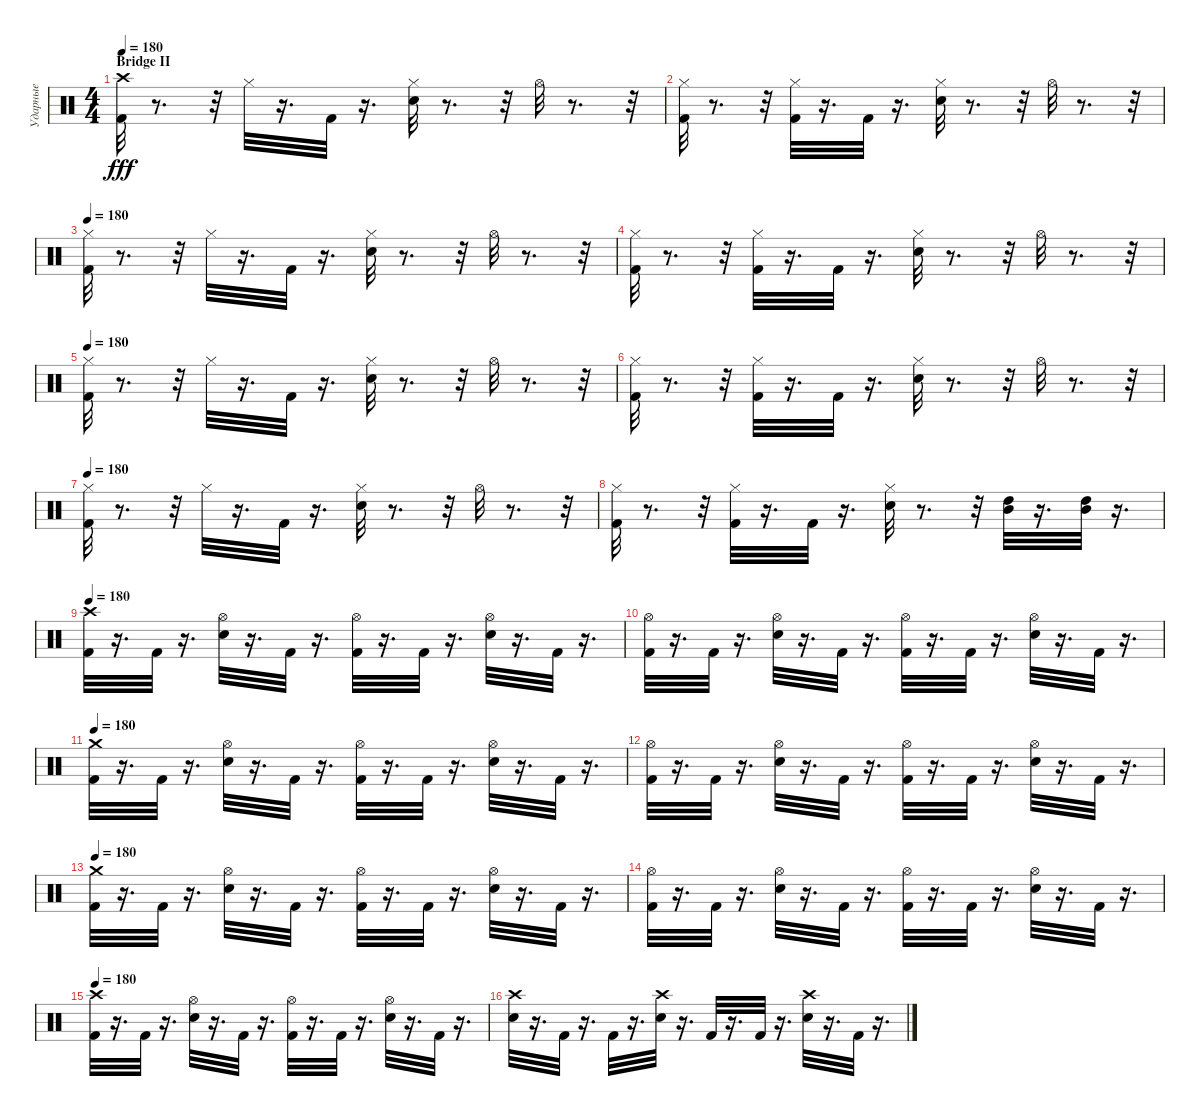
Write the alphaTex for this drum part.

\track ("Ударные" "Ударные") {instrument percussion}
\staff {score}
\articulation defaults
\ts (4 4)
\section ("" "Bridge II")
\tempo 180
\clef neutral
\ks c
("Crash high (hit)" "Kick (hit) 2").32{dy fff} r.8{d} r.32 "Hi-Hat (closed)".32 r.16{d} "Kick (hit) 2".32 r.16{d} ("Snare (hit) 2" "Hi-Hat (closed)").32 r.8{d} r.32 "Hi-Hat (open)".32 r.8{d} r.32 |
("Kick (hit) 2" "Hi-Hat (closed)").32 r.8{d} r.32 ("Hi-Hat (closed)" "Kick (hit) 2").32 r.16{d} "Kick (hit) 2".32 r.16{d} ("Snare (hit) 2" "Hi-Hat (closed)").32 r.8{d} r.32 "Hi-Hat (open)".32 r.8{d} r.32 |
\tempo 180
("Hi-Hat (closed)" "Kick (hit) 2").32 r.8{d} r.32 "Hi-Hat (closed)".32 r.16{d} "Kick (hit) 2".32 r.16{d} ("Snare (hit) 2" "Hi-Hat (closed)").32 r.8{d} r.32 "Hi-Hat (open)".32 r.8{d} r.32 |
("Hi-Hat (closed)" "Kick (hit) 2").32 r.8{d} r.32 ("Hi-Hat (closed)" "Kick (hit) 2").32 r.16{d} "Kick (hit) 2".32 r.16{d} ("Hi-Hat (closed)" "Snare (hit) 2").32 r.8{d} r.32 "Hi-Hat (open)".32 r.8{d} r.32 |
\tempo 180
("Kick (hit) 2" "Hi-Hat (closed)").32 r.8{d} r.32 "Hi-Hat (closed)".32 r.16{d} "Kick (hit) 2".32 r.16{d} ("Snare (hit) 2" "Hi-Hat (closed)").32 r.8{d} r.32 "Hi-Hat (open)".32 r.8{d} r.32 |
("Kick (hit) 2" "Hi-Hat (closed)").32 r.8{d} r.32 ("Hi-Hat (closed)" "Kick (hit) 2").32 r.16{d} "Kick (hit) 2".32 r.16{d} ("Hi-Hat (closed)" "Snare (hit) 2").32 r.8{d} r.32 "Hi-Hat (open)".32 r.8{d} r.32 |
\tempo 180
("Kick (hit) 2" "Hi-Hat (closed)").32 r.8{d} r.32 "Hi-Hat (closed)".32 r.16{d} "Kick (hit) 2".32 r.16{d} ("Snare (hit) 2" "Hi-Hat (closed)").32 r.8{d} r.32 "Hi-Hat (open)".32 r.8{d} r.32 |
("Hi-Hat (closed)" "Kick (hit) 2").32 r.8{d} r.32 ("Kick (hit) 2" "Hi-Hat (closed)").32 r.16{d} "Kick (hit) 2".32 r.16{d} ("Hi-Hat (closed)" "Snare (hit) 2").32 r.8{d} r.32 ("High Tom (hit)" "Mid Tom (hit)").32 r.16{d} ("Mid Tom (hit)" "High Tom (hit)").32 r.16{d} |
\tempo 180
("Kick (hit) 2" "Crash high (hit)").32 r.16{d} "Kick (hit) 2".32 r.16{d} ("Snare (hit) 2" "Hi-Hat (open)").32 r.16{d} "Kick (hit) 2".32 r.16{d} ("Hi-Hat (open)" "Kick (hit) 2").32 r.16{d} "Kick (hit) 2".32 r.16{d} ("Hi-Hat (open)" "Snare (hit) 2").32 r.16{d} "Kick (hit) 2".32 r.16{d} |
("Kick (hit) 2" "Hi-Hat (open)").32 r.16{d} "Kick (hit) 2".32 r.16{d} ("Hi-Hat (open)" "Snare (hit) 2").32 r.16{d} "Kick (hit) 2".32 r.16{d} ("Kick (hit) 2" "Hi-Hat (open)").32 r.16{d} "Kick (hit) 2".32 r.16{d} ("Hi-Hat (open)" "Snare (hit) 2").32 r.16{d} "Kick (hit) 2".32 r.16{d} |
\tempo 180
("Crash medium (hit)" "Kick (hit) 2").32 r.16{d} "Kick (hit) 2".32 r.16{d} ("Snare (hit) 2" "Hi-Hat (open)").32 r.16{d} "Kick (hit) 2".32 r.16{d} ("Kick (hit) 2" "Hi-Hat (open)").32 r.16{d} "Kick (hit) 2".32 r.16{d} ("Snare (hit) 2" "Hi-Hat (open)").32 r.16{d} "Kick (hit) 2".32 r.16{d} |
("Kick (hit) 2" "Hi-Hat (open)").32 r.16{d} "Kick (hit) 2".32 r.16{d} ("Snare (hit) 2" "Hi-Hat (open)").32 r.16{d} "Kick (hit) 2".32 r.16{d} ("Kick (hit) 2" "Hi-Hat (open)").32 r.16{d} "Kick (hit) 2".32 r.16{d} ("Snare (hit) 2" "Hi-Hat (open)").32 r.16{d} "Kick (hit) 2".32 r.16{d} |
\tempo 180
("Kick (hit) 2" "Crash medium (hit)").32 r.16{d} "Kick (hit) 2".32 r.16{d} ("Hi-Hat (open)" "Snare (hit) 2").32 r.16{d} "Kick (hit) 2".32 r.16{d} ("Hi-Hat (open)" "Kick (hit) 2").32 r.16{d} "Kick (hit) 2".32 r.16{d} ("Snare (hit) 2" "Hi-Hat (open)").32 r.16{d} "Kick (hit) 2".32 r.16{d} |
("Kick (hit) 2" "Hi-Hat (open)").32 r.16{d} "Kick (hit) 2".32 r.16{d} ("Hi-Hat (open)" "Snare (hit) 2").32 r.16{d} "Kick (hit) 2".32 r.16{d} ("Kick (hit) 2" "Hi-Hat (open)").32 r.16{d} "Kick (hit) 2".32 r.16{d} ("Hi-Hat (open)" "Snare (hit) 2").32 r.16{d} "Kick (hit) 2".32 r.16{d} |
\tempo 180
("Kick (hit) 2" "Crash high (hit)").32 r.16{d} "Kick (hit) 2".32 r.16{d} ("Hi-Hat (open)" "Snare (hit) 2").32 r.16{d} "Kick (hit) 2".32 r.16{d} ("Kick (hit) 2" "Hi-Hat (open)").32 r.16{d} "Kick (hit) 2".32 r.16{d} ("Snare (hit) 2" "Hi-Hat (open)").32 r.16{d} "Kick (hit) 2".32 r.16{d} |
("Crash high (hit)" "Snare (hit) 2").32 r.16{d} "Kick (hit) 2".32 r.16{d} "Kick (hit) 2".32 r.16{d} ("Crash high (hit)" "Snare (hit) 2").32 r.16{d} "Kick (hit) 2".32 r.16{d} "Kick (hit) 2".32 r.16{d} ("Snare (hit) 2" "Crash high (hit)").32 r.16{d} "Kick (hit) 2".32 r.16{d}
